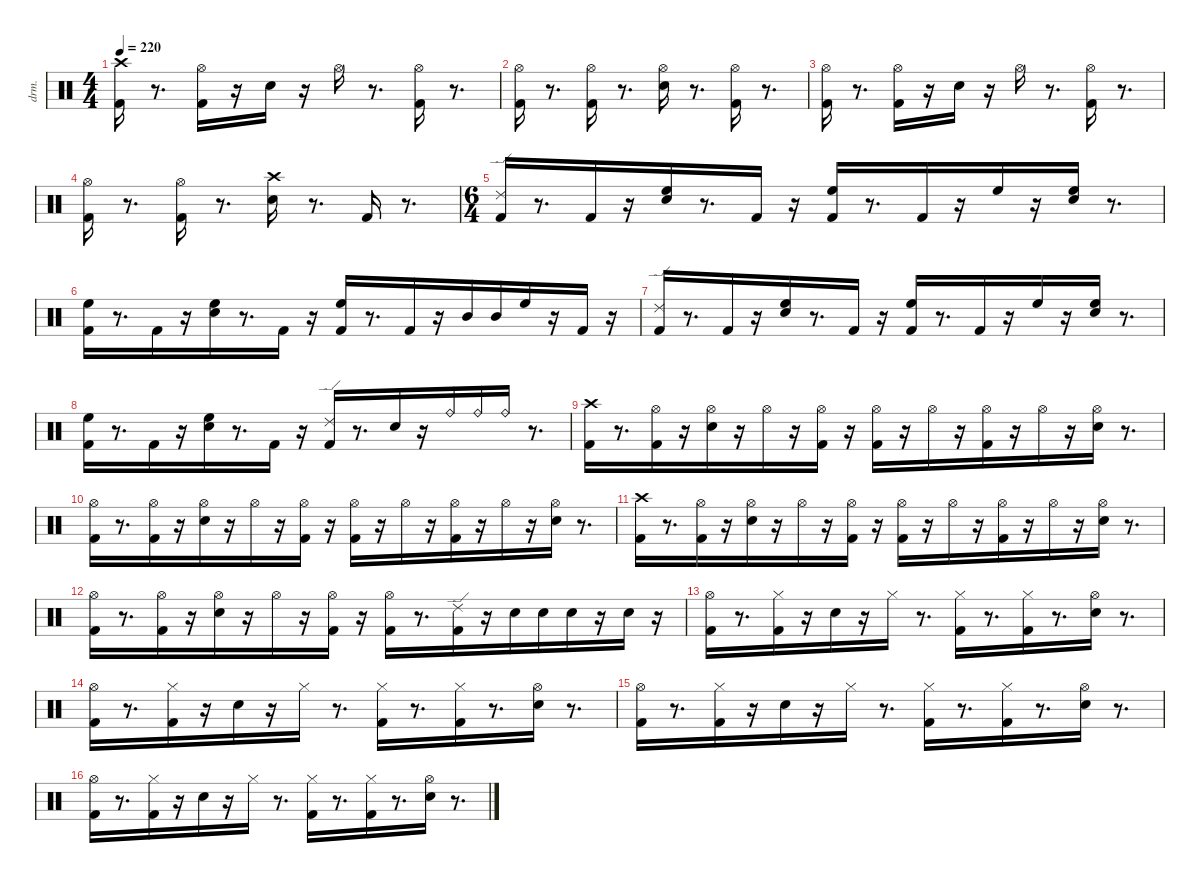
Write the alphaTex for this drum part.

\defaultSystemsLayout 4
\hideDynamics
\bracketExtendMode nobrackets
\otherSystemsTrackNameOrientation horizontal
\track ("EZdrummer 3" "drm.") {instrument percussion}
\staff {score}
\articulation defaults
\ts (4 4)
\tempo 220
\clef neutral
\ks c
("Kick (hit) 2" "Crash high (hit)"{acc #}).16{dy fff beam Down} r.8{d beam Down} ("Kick (hit) 2" "Hi-Hat (open)"{acc #}).16{dy ff beam Down} r.16{beam Down} "Snare (hit) 2".16{beam Down} r.16{beam Down} "Hi-Hat (open)"{acc #}.16{beam Down} r.8{d beam Down} ("Kick (hit) 2" "Hi-Hat (open)"{acc #}).16{beam Down} r.8{d beam Down} |
("Kick (hit) 2" "Hi-Hat (open)"{acc #}).16{beam Down} r.8{d beam Down} ("Kick (hit) 2" "Hi-Hat (open)"{acc #}).16{beam Down} r.8{d beam Down} ("Snare (hit) 2" "Hi-Hat (open)"{acc #}).16{beam Down} r.8{d beam Down} ("Kick (hit) 2" "Hi-Hat (open)"{acc #}).16{dy mf beam Down} r.8{d beam Down} |
("Kick (hit) 2" "Hi-Hat (open)"{acc #}).16{dy fff beam Down} r.8{d beam Down} ("Kick (hit) 2" "Hi-Hat (open)"{acc #}).16{dy ff beam Down} r.16{beam Down} "Snare (hit) 2".16{beam Down} r.16{beam Down} "Hi-Hat (open)"{acc #}.16{beam Down} r.8{d beam Down} ("Kick (hit) 2" "Hi-Hat (open)"{acc #}).16{beam Down} r.8{d beam Down} |
("Kick (hit) 2" "Hi-Hat (open)"{acc #}).16{beam Down} r.8{d beam Down} ("Kick (hit) 2" "Hi-Hat (open)"{acc #}).16{beam Down} r.8{d beam Down} ("Snare (hit) 2" "Crash high (hit)"{acc #}).16{beam Down} r.8{d beam Down} "Kick (hit) 2".16{dy mf beam Up} r.8{d beam Up} |
\ts (6 4)
\beaming (8 6 6)
("Kick (hit) 2" "Ride (edge) 2").16{dy ff beam Up} r.8{d beam Up} "Kick (hit) 2".16{dy f beam Up} r.16{beam Up} ("Snare (hit) 2" "High Floor Tom (hit)").16{dy ff beam Down} r.8{d beam Down} "Kick (hit) 2".16{dy f beam Up} r.16{beam Up} ("Kick (hit) 2" "High Floor Tom (hit)").16{dy ff beam Up} r.8{d beam Up} "Kick (hit) 2".16{dy f beam Up} r.16{beam Up} "High Floor Tom (hit)".16{dy p beam Down} r.16{beam Down} ("Snare (hit) 2" "High Floor Tom (hit)").16{dy ff beam Down} r.8{d beam Down} |
("Kick (hit) 2" "High Floor Tom (hit)").16{beam Down} r.8{d beam Down} "Kick (hit) 2".16{dy f beam Up} r.16{beam Up} ("Snare (hit) 2" "High Floor Tom (hit)").16{dy ff beam Down} r.8{d beam Down} "Kick (hit) 2".16{dy f beam Up} r.16{beam Up} ("Kick (hit) 2" "High Floor Tom (hit)").16{dy ff beam Up} r.8{d beam Up} "Kick (hit) 2".16{dy f beam Up} r.16{beam Up} "Mid Tom (hit)".16{dy ff beam Down} "Mid Tom (hit)".16{dy mp beam Down} "High Floor Tom (hit)".16{dy ff beam Down} r.16{beam Down} "Kick (hit) 2".16{beam Up} r.16{beam Up} |
("Kick (hit) 2" "Ride (edge) 2").16{beam Up} r.8{d beam Up} "Kick (hit) 2".16{dy f beam Up} r.16{beam Up} ("Snare (hit) 2" "High Floor Tom (hit)").16{dy ff beam Down} r.8{d beam Down} "Kick (hit) 2".16{dy f beam Up} r.16{beam Up} ("Kick (hit) 2" "High Floor Tom (hit)").16{dy ff beam Up} r.8{d beam Up} "Kick (hit) 2".16{dy f beam Up} r.16{beam Up} "High Floor Tom (hit)".16{dy mp beam Down} r.16{beam Down} ("Snare (hit) 2" "High Floor Tom (hit)").16{dy ff beam Down} r.8{d beam Down} |
("Kick (hit) 2" "High Floor Tom (hit)").16{beam Down} r.8{d beam Down} "Kick (hit) 2".16{dy f beam Up} r.16{beam Up} ("Snare (hit) 2" "High Floor Tom (hit)").16{dy ff beam Down} r.8{d beam Down} "Kick (hit) 2".16{dy f beam Up} r.16{beam Up} ("Kick (hit) 2" "Ride (edge) 2").16{dy ff beam Up} r.8{d beam Up} "Snare (hit) 2".16{dy fff beam Down} r.16{beam Down} "Ride (bell)".16{dy mf beam Down} "Ride (bell)".16{dy mp beam Down} "Ride (bell)".16{dy ff beam Down} r.8{d beam Down} |
("Kick (hit) 2" "Crash high (hit)"{acc #}).16{beam Down} r.8{d beam Down} ("Kick (hit) 2" "Hi-Hat (open)"{acc #}).16{dy f beam Down} r.16{beam Down} ("Snare (hit) 2" "Hi-Hat (open)"{acc #}).16{dy ff beam Down} r.16{beam Down} "Hi-Hat (open)"{acc #}.16{beam Down} r.16{beam Down} ("Kick (hit) 2" "Hi-Hat (open)"{acc #}).16{dy f beam Down} r.16{beam Down} ("Kick (hit) 2" "Hi-Hat (open)"{acc #}).16{dy ff beam Down} r.16{beam Down} "Hi-Hat (open)"{acc #}.16{dy pp beam Down} r.16{beam Down} ("Kick (hit) 2" "Hi-Hat (open)"{acc #}).16{dy f beam Down} r.16{beam Down} "Hi-Hat (open)"{acc #}.16{dy pp beam Down} r.16{beam Down} ("Snare (hit) 2" "Hi-Hat (open)"{acc #}).16{dy ff beam Down} r.8{d beam Down} |
("Kick (hit) 2" "Hi-Hat (open)"{acc #}).16{beam Down} r.8{d beam Down} ("Kick (hit) 2" "Hi-Hat (open)"{acc #}).16{dy f beam Down} r.16{beam Down} ("Snare (hit) 2" "Hi-Hat (open)"{acc #}).16{dy ff beam Down} r.16{beam Down} "Hi-Hat (open)"{acc #}.16{beam Down} r.16{beam Down} ("Kick (hit) 2" "Hi-Hat (open)"{acc #}).16{dy f beam Down} r.16{beam Down} ("Kick (hit) 2" "Hi-Hat (open)"{acc #}).16{dy ff beam Down} r.16{beam Down} "Hi-Hat (open)"{acc #}.16{dy pp beam Down} r.16{beam Down} ("Kick (hit) 2" "Hi-Hat (open)"{acc #}).16{dy f beam Down} r.16{beam Down} "Hi-Hat (open)"{acc #}.16{dy pp beam Down} r.16{beam Down} ("Snare (hit) 2" "Hi-Hat (open)"{acc #}).16{dy ff beam Down} r.8{d beam Down} |
("Kick (hit) 2" "Crash high (hit)"{acc #}).16{beam Down} r.8{d beam Down} ("Kick (hit) 2" "Hi-Hat (open)"{acc #}).16{dy f beam Down} r.16{beam Down} ("Snare (hit) 2" "Hi-Hat (open)"{acc #}).16{dy ff beam Down} r.16{beam Down} "Hi-Hat (open)"{acc #}.16{beam Down} r.16{beam Down} ("Kick (hit) 2" "Hi-Hat (open)"{acc #}).16{dy f beam Down} r.16{beam Down} ("Kick (hit) 2" "Hi-Hat (open)"{acc #}).16{dy ff beam Down} r.16{beam Down} "Hi-Hat (open)"{acc #}.16{dy pp beam Down} r.16{beam Down} ("Kick (hit) 2" "Hi-Hat (open)"{acc #}).16{dy f beam Down} r.16{beam Down} "Hi-Hat (open)"{acc #}.16{dy pp beam Down} r.16{beam Down} ("Snare (hit) 2" "Hi-Hat (open)"{acc #}).16{dy ff beam Down} r.8{d beam Down} |
("Kick (hit) 2" "Hi-Hat (open)"{acc #}).16{beam Down} r.8{d beam Down} ("Kick (hit) 2" "Hi-Hat (open)"{acc #}).16{dy f beam Down} r.16{beam Down} ("Snare (hit) 2" "Hi-Hat (open)"{acc #}).16{dy ff beam Down} r.16{beam Down} "Hi-Hat (open)"{acc #}.16{beam Down} r.16{beam Down} ("Kick (hit) 2" "Hi-Hat (open)"{acc #}).16{dy f beam Down} r.16{beam Down} ("Kick (hit) 2" "Hi-Hat (open)"{acc #}).16{dy ff beam Down} r.8{d beam Down} ("Kick (hit) 2" "Ride (edge) 2").16{dy fff beam Up} r.16{beam Up} "Snare (hit) 2".16{dy mp beam Down} "Snare (hit) 2".16{dy pp beam Down} "Snare (hit) 2".16{dy f beam Down} r.16{beam Down} "Snare (hit) 2".16{dy fff beam Down} r.16{beam Down} |
("Kick (hit) 2" "Hi-Hat (open)"{acc #}).16{beam Down} r.8{d beam Down} ("Kick (hit) 2" "Hi-Hat (closed)"{acc #}).16{dy f beam Down} r.16{beam Down} "Snare (hit) 2".16{dy ff beam Down} r.16{beam Down} "Hi-Hat (closed)"{acc #}.16{beam Down} r.8{d beam Down} ("Kick (hit) 2" "Hi-Hat (closed)"{acc #}).16{beam Down} r.8{d beam Down} ("Kick (hit) 2" "Hi-Hat (closed)"{acc #}).16{dy f beam Down} r.8{d beam Down} ("Snare (hit) 2" "Hi-Hat (open)"{acc #}).16{dy ff beam Down} r.8{d beam Down} |
("Kick (hit) 2" "Hi-Hat (open)"{acc #}).16{dy fff beam Down} r.8{d beam Down} ("Kick (hit) 2" "Hi-Hat (closed)"{acc #}).16{dy f beam Down} r.16{beam Down} "Snare (hit) 2".16{dy ff beam Down} r.16{beam Down} "Hi-Hat (closed)"{acc #}.16{beam Down} r.8{d beam Down} ("Kick (hit) 2" "Hi-Hat (closed)"{acc #}).16{beam Down} r.8{d beam Down} ("Kick (hit) 2" "Hi-Hat (closed)"{acc #}).16{dy f beam Down} r.8{d beam Down} ("Snare (hit) 2" "Hi-Hat (open)"{acc #}).16{dy ff beam Down} r.8{d beam Down} |
("Kick (hit) 2" "Hi-Hat (open)"{acc #}).16{dy fff beam Down} r.8{d beam Down} ("Kick (hit) 2" "Hi-Hat (closed)"{acc #}).16{dy f beam Down} r.16{beam Down} "Snare (hit) 2".16{dy ff beam Down} r.16{beam Down} "Hi-Hat (closed)"{acc #}.16{beam Down} r.8{d beam Down} ("Kick (hit) 2" "Hi-Hat (closed)"{acc #}).16{beam Down} r.8{d beam Down} ("Kick (hit) 2" "Hi-Hat (closed)"{acc #}).16{dy f beam Down} r.8{d beam Down} ("Snare (hit) 2" "Hi-Hat (open)"{acc #}).16{dy ff beam Down} r.8{d beam Down} |
("Kick (hit) 2" "Hi-Hat (open)"{acc #}).16{dy fff beam Down} r.8{d beam Down} ("Kick (hit) 2" "Hi-Hat (closed)"{acc #}).16{dy f beam Down} r.16{beam Down} "Snare (hit) 2".16{dy ff beam Down} r.16{beam Down} "Hi-Hat (closed)"{acc #}.16{beam Down} r.8{d beam Down} ("Kick (hit) 2" "Hi-Hat (closed)"{acc #}).16{beam Down} r.8{d beam Down} ("Kick (hit) 2" "Hi-Hat (closed)"{acc #}).16{dy f beam Down} r.8{d beam Down} ("Snare (hit) 2" "Hi-Hat (open)"{acc #}).16{dy ff beam Down} r.8{d beam Down}
